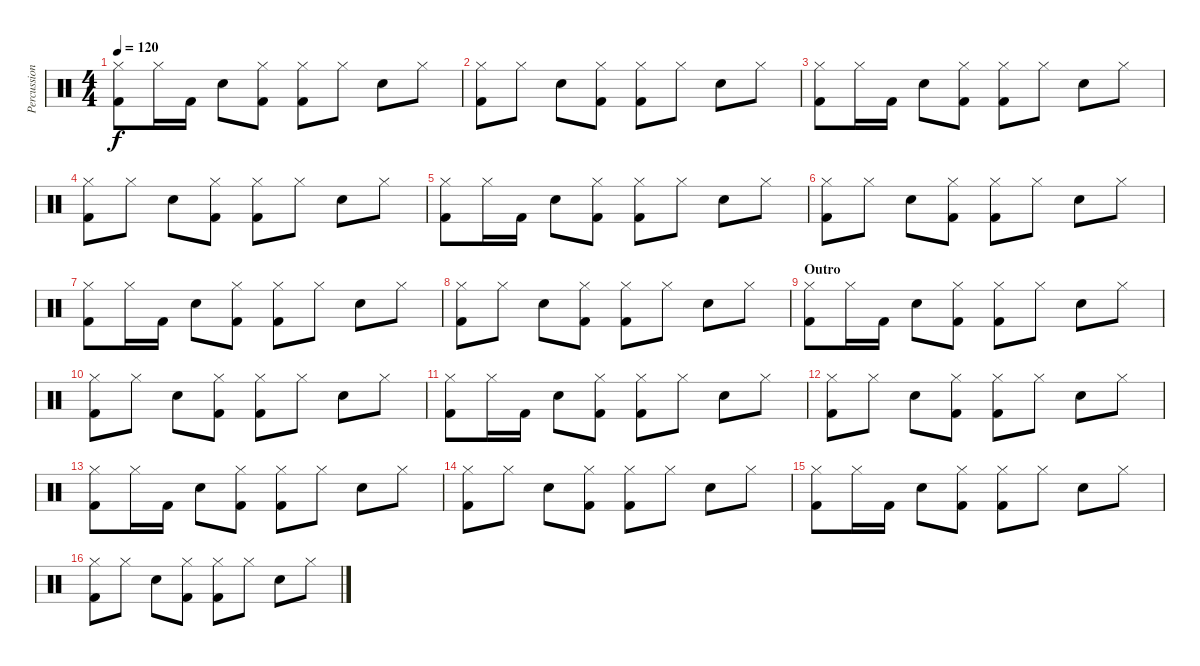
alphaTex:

\track ("Percussion (Bela)" "Percussion") {instrument percussion}
\staff {score}
\articulation defaults
\ts (4 4)
\tempo 120
\clef neutral
\ks c
("Hi-Hat (closed)" "Kick (hit) 2").8{dy f} "Hi-Hat (closed)".16 "Kick (hit) 2".16 "Electric Snare (hit)".8 ("Hi-Hat (closed)" "Kick (hit) 2").8 ("Hi-Hat (closed)" "Kick (hit) 2").8 "Hi-Hat (closed)".8 "Electric Snare (hit)".8 "Hi-Hat (closed)".8 |
("Hi-Hat (closed)" "Kick (hit) 2").8 "Hi-Hat (closed)".8 "Electric Snare (hit)".8 ("Hi-Hat (closed)" "Kick (hit) 2").8 ("Hi-Hat (closed)" "Kick (hit) 2").8 "Hi-Hat (closed)".8 "Electric Snare (hit)".8 "Hi-Hat (closed)".8 |
("Hi-Hat (closed)" "Kick (hit) 2").8 "Hi-Hat (closed)".16 "Kick (hit) 2".16 "Electric Snare (hit)".8 ("Hi-Hat (closed)" "Kick (hit) 2").8 ("Hi-Hat (closed)" "Kick (hit) 2").8 "Hi-Hat (closed)".8 "Electric Snare (hit)".8 "Hi-Hat (closed)".8 |
("Hi-Hat (closed)" "Kick (hit) 2").8 "Hi-Hat (closed)".8 "Electric Snare (hit)".8 ("Hi-Hat (closed)" "Kick (hit) 2").8 ("Hi-Hat (closed)" "Kick (hit) 2").8 "Hi-Hat (closed)".8 "Electric Snare (hit)".8 "Hi-Hat (closed)".8 |
("Hi-Hat (closed)" "Kick (hit) 2").8 "Hi-Hat (closed)".16 "Kick (hit) 2".16 "Electric Snare (hit)".8 ("Hi-Hat (closed)" "Kick (hit) 2").8 ("Hi-Hat (closed)" "Kick (hit) 2").8 "Hi-Hat (closed)".8 "Electric Snare (hit)".8 "Hi-Hat (closed)".8 |
("Hi-Hat (closed)" "Kick (hit) 2").8 "Hi-Hat (closed)".8 "Electric Snare (hit)".8 ("Hi-Hat (closed)" "Kick (hit) 2").8 ("Hi-Hat (closed)" "Kick (hit) 2").8 "Hi-Hat (closed)".8 "Electric Snare (hit)".8 "Hi-Hat (closed)".8 |
("Hi-Hat (closed)" "Kick (hit) 2").8 "Hi-Hat (closed)".16 "Kick (hit) 2".16 "Electric Snare (hit)".8 ("Hi-Hat (closed)" "Kick (hit) 2").8 ("Hi-Hat (closed)" "Kick (hit) 2").8 "Hi-Hat (closed)".8 "Electric Snare (hit)".8 "Hi-Hat (closed)".8 |
("Hi-Hat (closed)" "Kick (hit) 2").8 "Hi-Hat (closed)".8 "Electric Snare (hit)".8 ("Hi-Hat (closed)" "Kick (hit) 2").8 ("Hi-Hat (closed)" "Kick (hit) 2").8 "Hi-Hat (closed)".8 "Electric Snare (hit)".8 "Hi-Hat (closed)".8 |
\section ("" "Outro")
("Hi-Hat (closed)" "Kick (hit) 2").8 "Hi-Hat (closed)".16 "Kick (hit) 2".16 "Electric Snare (hit)".8 ("Hi-Hat (closed)" "Kick (hit) 2").8 ("Hi-Hat (closed)" "Kick (hit) 2").8 "Hi-Hat (closed)".8 "Electric Snare (hit)".8 "Hi-Hat (closed)".8 |
("Hi-Hat (closed)" "Kick (hit) 2").8 "Hi-Hat (closed)".8 "Electric Snare (hit)".8 ("Hi-Hat (closed)" "Kick (hit) 2").8 ("Hi-Hat (closed)" "Kick (hit) 2").8 "Hi-Hat (closed)".8 "Electric Snare (hit)".8 "Hi-Hat (closed)".8 |
("Hi-Hat (closed)" "Kick (hit) 2").8 "Hi-Hat (closed)".16 "Kick (hit) 2".16 "Electric Snare (hit)".8 ("Hi-Hat (closed)" "Kick (hit) 2").8 ("Hi-Hat (closed)" "Kick (hit) 2").8 "Hi-Hat (closed)".8 "Electric Snare (hit)".8 "Hi-Hat (closed)".8 |
("Hi-Hat (closed)" "Kick (hit) 2").8 "Hi-Hat (closed)".8 "Electric Snare (hit)".8 ("Hi-Hat (closed)" "Kick (hit) 2").8 ("Hi-Hat (closed)" "Kick (hit) 2").8 "Hi-Hat (closed)".8 "Electric Snare (hit)".8 "Hi-Hat (closed)".8 |
("Hi-Hat (closed)" "Kick (hit) 2").8 "Hi-Hat (closed)".16 "Kick (hit) 2".16 "Electric Snare (hit)".8 ("Hi-Hat (closed)" "Kick (hit) 2").8 ("Hi-Hat (closed)" "Kick (hit) 2").8 "Hi-Hat (closed)".8 "Electric Snare (hit)".8 "Hi-Hat (closed)".8 |
("Hi-Hat (closed)" "Kick (hit) 2").8 "Hi-Hat (closed)".8 "Electric Snare (hit)".8 ("Hi-Hat (closed)" "Kick (hit) 2").8 ("Hi-Hat (closed)" "Kick (hit) 2").8 "Hi-Hat (closed)".8 "Electric Snare (hit)".8 "Hi-Hat (closed)".8 |
("Hi-Hat (closed)" "Kick (hit) 2").8 "Hi-Hat (closed)".16 "Kick (hit) 2".16 "Electric Snare (hit)".8 ("Hi-Hat (closed)" "Kick (hit) 2").8 ("Hi-Hat (closed)" "Kick (hit) 2").8 "Hi-Hat (closed)".8 "Electric Snare (hit)".8 "Hi-Hat (closed)".8 |
("Hi-Hat (closed)" "Kick (hit) 2").8 "Hi-Hat (closed)".8 "Electric Snare (hit)".8 ("Hi-Hat (closed)" "Kick (hit) 2").8 ("Hi-Hat (closed)" "Kick (hit) 2").8 "Hi-Hat (closed)".8 "Electric Snare (hit)".8 "Hi-Hat (closed)".8
